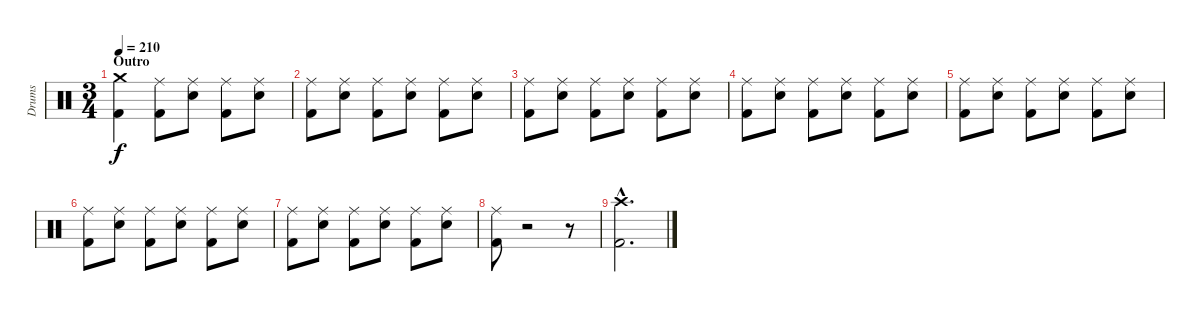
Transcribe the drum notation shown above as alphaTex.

\track ("Drums" "Drums") {instrument percussion}
\staff {score}
\articulation defaults
\ts (3 4)
\section ("" "Outro")
\tempo 210
\clef neutral
\ks c
("Crash medium (hit)" "Kick (hit) 2").4{dy f} ("Ride (middle)" "Kick (hit) 2").8 ("Ride (middle)" "Electric Snare (hit)").8 ("Ride (middle)" "Kick (hit) 2").8 ("Ride (middle)" "Electric Snare (hit)").8 |
("Ride (middle)" "Kick (hit) 2").8 ("Ride (middle)" "Electric Snare (hit)").8 ("Ride (middle)" "Kick (hit) 2").8 ("Ride (middle)" "Electric Snare (hit)").8 ("Ride (middle)" "Kick (hit) 2").8 ("Ride (middle)" "Electric Snare (hit)").8 |
("Ride (middle)" "Kick (hit) 2").8 ("Ride (middle)" "Electric Snare (hit)").8 ("Ride (middle)" "Kick (hit) 2").8 ("Ride (middle)" "Electric Snare (hit)").8 ("Ride (middle)" "Kick (hit) 2").8 ("Ride (middle)" "Electric Snare (hit)").8 |
("Ride (middle)" "Kick (hit) 2").8 ("Ride (middle)" "Electric Snare (hit)").8 ("Ride (middle)" "Kick (hit) 2").8 ("Ride (middle)" "Electric Snare (hit)").8 ("Ride (middle)" "Kick (hit) 2").8 ("Ride (middle)" "Electric Snare (hit)").8 |
("Ride (middle)" "Kick (hit) 2").8 ("Ride (middle)" "Electric Snare (hit)").8 ("Ride (middle)" "Kick (hit) 2").8 ("Ride (middle)" "Electric Snare (hit)").8 ("Ride (middle)" "Kick (hit) 2").8 ("Ride (middle)" "Electric Snare (hit)").8 |
("Ride (middle)" "Kick (hit) 2").8 ("Ride (middle)" "Electric Snare (hit)").8 ("Ride (middle)" "Kick (hit) 2").8 ("Ride (middle)" "Electric Snare (hit)").8 ("Ride (middle)" "Kick (hit) 2").8 ("Ride (middle)" "Electric Snare (hit)").8 |
("Ride (middle)" "Kick (hit) 2").8 ("Ride (middle)" "Electric Snare (hit)").8 ("Ride (middle)" "Kick (hit) 2").8 ("Ride (middle)" "Electric Snare (hit)").8 ("Ride (middle)" "Kick (hit) 2").8 ("Ride (middle)" "Electric Snare (hit)").8 |
("Ride (middle)" "Kick (hit) 2").8 r.2 r.8 |
("Crash high (hit)"{hac} "Kick (hit) 2"{hac}).2{d}
